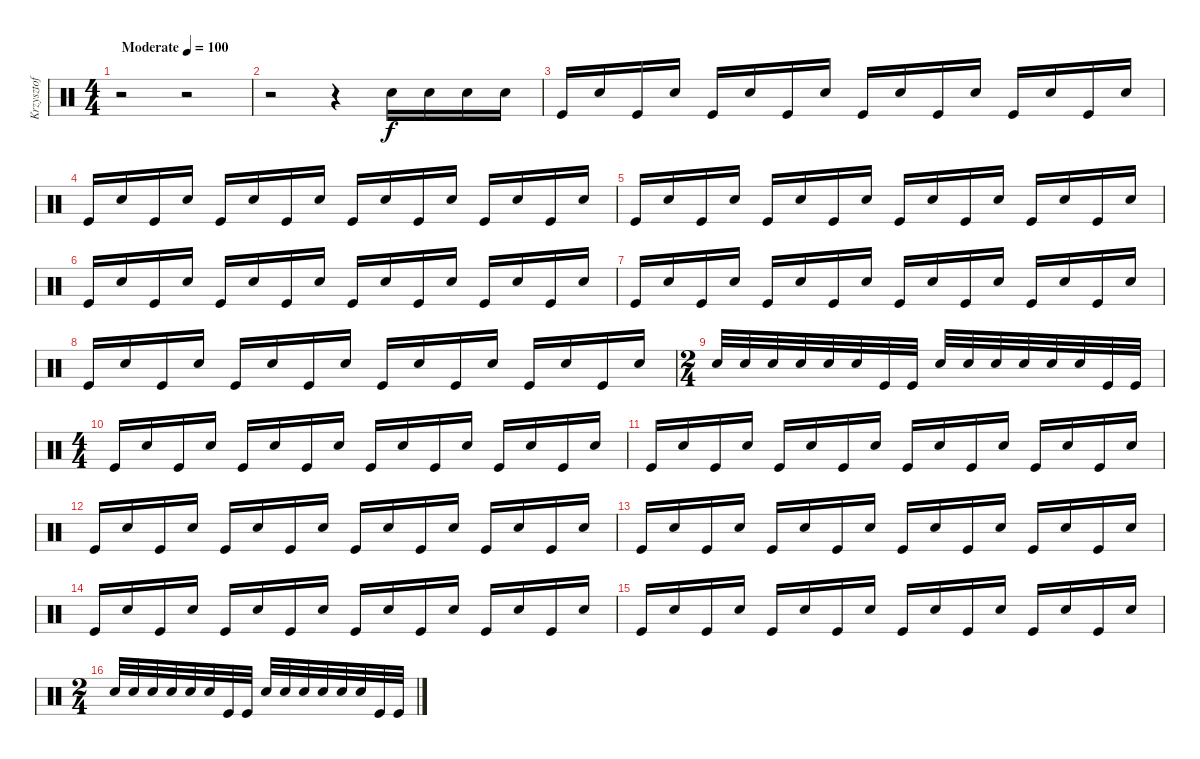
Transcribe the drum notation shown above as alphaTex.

\track ("Krzysztof Grela" "Krzysztof ") {instrument percussion}
\staff {score}
\articulation defaults
\ts (4 4)
\tempo (100 "Moderate")
\clef neutral
\ks c
r.2{dy f} r.2 |
r.2 r.4 "Snare (hit) 2".16 "Snare (hit) 2".16 "Snare (hit) 2".16 "Snare (hit) 2".16 |
"Kick (hit)".16 "Snare (hit) 2".16 "Kick (hit)".16 "Snare (hit) 2".16 "Kick (hit)".16 "Snare (hit) 2".16 "Kick (hit)".16 "Snare (hit) 2".16 "Kick (hit)".16 "Snare (hit) 2".16 "Kick (hit)".16 "Snare (hit) 2".16 "Kick (hit)".16 "Snare (hit) 2".16 "Kick (hit)".16 "Snare (hit) 2".16 |
"Kick (hit)".16 "Snare (hit) 2".16 "Kick (hit)".16 "Snare (hit) 2".16 "Kick (hit)".16 "Snare (hit) 2".16 "Kick (hit)".16 "Snare (hit) 2".16 "Kick (hit)".16 "Snare (hit) 2".16 "Kick (hit)".16 "Snare (hit) 2".16 "Kick (hit)".16 "Snare (hit) 2".16 "Kick (hit)".16 "Snare (hit) 2".16 |
"Kick (hit)".16 "Snare (hit) 2".16 "Kick (hit)".16 "Snare (hit) 2".16 "Kick (hit)".16 "Snare (hit) 2".16 "Kick (hit)".16 "Snare (hit) 2".16 "Kick (hit)".16 "Snare (hit) 2".16 "Kick (hit)".16 "Snare (hit) 2".16 "Kick (hit)".16 "Snare (hit) 2".16 "Kick (hit)".16 "Snare (hit) 2".16 |
"Kick (hit)".16 "Snare (hit) 2".16 "Kick (hit)".16 "Snare (hit) 2".16 "Kick (hit)".16 "Snare (hit) 2".16 "Kick (hit)".16 "Snare (hit) 2".16 "Kick (hit)".16 "Snare (hit) 2".16 "Kick (hit)".16 "Snare (hit) 2".16 "Kick (hit)".16 "Snare (hit) 2".16 "Kick (hit)".16 "Snare (hit) 2".16 |
"Kick (hit)".16 "Snare (hit) 2".16 "Kick (hit)".16 "Snare (hit) 2".16 "Kick (hit)".16 "Snare (hit) 2".16 "Kick (hit)".16 "Snare (hit) 2".16 "Kick (hit)".16 "Snare (hit) 2".16 "Kick (hit)".16 "Snare (hit) 2".16 "Kick (hit)".16 "Snare (hit) 2".16 "Kick (hit)".16 "Snare (hit) 2".16 |
"Kick (hit)".16 "Snare (hit) 2".16 "Kick (hit)".16 "Snare (hit) 2".16 "Kick (hit)".16 "Snare (hit) 2".16 "Kick (hit)".16 "Snare (hit) 2".16 "Kick (hit)".16 "Snare (hit) 2".16 "Kick (hit)".16 "Snare (hit) 2".16 "Kick (hit)".16 "Snare (hit) 2".16 "Kick (hit)".16 "Snare (hit) 2".16 |
\ts (2 4)
"Snare (hit) 2".32 "Snare (hit) 2".32 "Snare (hit) 2".32 "Snare (hit) 2".32 "Snare (hit) 2".32 "Snare (hit) 2".32 "Kick (hit)".32 "Kick (hit)".32 "Snare (hit) 2".32 "Snare (hit) 2".32 "Snare (hit) 2".32 "Snare (hit) 2".32 "Snare (hit) 2".32 "Snare (hit) 2".32 "Kick (hit)".32 "Kick (hit)".32 |
\ts (4 4)
"Kick (hit)".16 "Snare (hit) 2".16 "Kick (hit)".16 "Snare (hit) 2".16 "Kick (hit)".16 "Snare (hit) 2".16 "Kick (hit)".16 "Snare (hit) 2".16 "Kick (hit)".16 "Snare (hit) 2".16 "Kick (hit)".16 "Snare (hit) 2".16 "Kick (hit)".16 "Snare (hit) 2".16 "Kick (hit)".16 "Snare (hit) 2".16 |
"Kick (hit)".16 "Snare (hit) 2".16 "Kick (hit)".16 "Snare (hit) 2".16 "Kick (hit)".16 "Snare (hit) 2".16 "Kick (hit)".16 "Snare (hit) 2".16 "Kick (hit)".16 "Snare (hit) 2".16 "Kick (hit)".16 "Snare (hit) 2".16 "Kick (hit)".16 "Snare (hit) 2".16 "Kick (hit)".16 "Snare (hit) 2".16 |
"Kick (hit)".16 "Snare (hit) 2".16 "Kick (hit)".16 "Snare (hit) 2".16 "Kick (hit)".16 "Snare (hit) 2".16 "Kick (hit)".16 "Snare (hit) 2".16 "Kick (hit)".16 "Snare (hit) 2".16 "Kick (hit)".16 "Snare (hit) 2".16 "Kick (hit)".16 "Snare (hit) 2".16 "Kick (hit)".16 "Snare (hit) 2".16 |
"Kick (hit)".16 "Snare (hit) 2".16 "Kick (hit)".16 "Snare (hit) 2".16 "Kick (hit)".16 "Snare (hit) 2".16 "Kick (hit)".16 "Snare (hit) 2".16 "Kick (hit)".16 "Snare (hit) 2".16 "Kick (hit)".16 "Snare (hit) 2".16 "Kick (hit)".16 "Snare (hit) 2".16 "Kick (hit)".16 "Snare (hit) 2".16 |
"Kick (hit)".16 "Snare (hit) 2".16 "Kick (hit)".16 "Snare (hit) 2".16 "Kick (hit)".16 "Snare (hit) 2".16 "Kick (hit)".16 "Snare (hit) 2".16 "Kick (hit)".16 "Snare (hit) 2".16 "Kick (hit)".16 "Snare (hit) 2".16 "Kick (hit)".16 "Snare (hit) 2".16 "Kick (hit)".16 "Snare (hit) 2".16 |
"Kick (hit)".16 "Snare (hit) 2".16 "Kick (hit)".16 "Snare (hit) 2".16 "Kick (hit)".16 "Snare (hit) 2".16 "Kick (hit)".16 "Snare (hit) 2".16 "Kick (hit)".16 "Snare (hit) 2".16 "Kick (hit)".16 "Snare (hit) 2".16 "Kick (hit)".16 "Snare (hit) 2".16 "Kick (hit)".16 "Snare (hit) 2".16 |
\ts (2 4)
"Snare (hit) 2".32 "Snare (hit) 2".32 "Snare (hit) 2".32 "Snare (hit) 2".32 "Snare (hit) 2".32 "Snare (hit) 2".32 "Kick (hit)".32 "Kick (hit)".32 "Snare (hit) 2".32 "Snare (hit) 2".32 "Snare (hit) 2".32 "Snare (hit) 2".32 "Snare (hit) 2".32 "Snare (hit) 2".32 "Kick (hit)".32 "Kick (hit)".32
